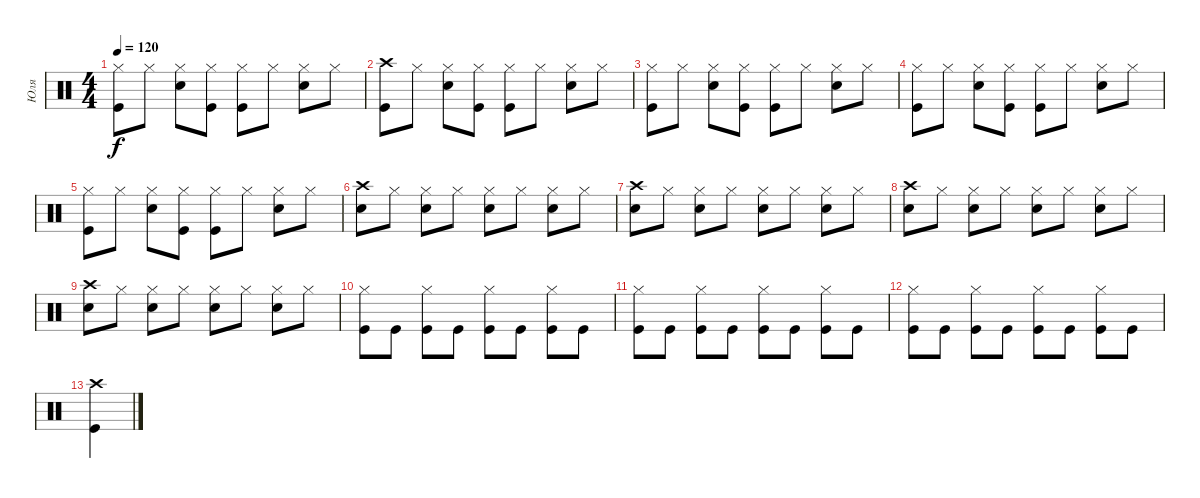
\track ("Юля" "Юля") {instrument percussion}
\staff {score}
\articulation defaults
\ts (4 4)
\tempo 120
\clef neutral
\ks c
("Hi-Hat (closed)" "Kick (hit)").8{dy f} "Hi-Hat (closed)".8 ("Hi-Hat (closed)" "Snare (hit) 2").8 ("Hi-Hat (closed)" "Kick (hit)").8 ("Hi-Hat (closed)" "Kick (hit)").8 "Hi-Hat (closed)".8 ("Hi-Hat (closed)" "Snare (hit) 2").8 "Hi-Hat (closed)".8 |
("Crash high (hit)" "Kick (hit)").8 "Hi-Hat (closed)".8 ("Hi-Hat (closed)" "Snare (hit) 2").8 ("Hi-Hat (closed)" "Kick (hit)").8 ("Hi-Hat (closed)" "Kick (hit)").8 "Hi-Hat (closed)".8 ("Hi-Hat (closed)" "Snare (hit) 2").8 "Hi-Hat (closed)".8 |
("Hi-Hat (closed)" "Kick (hit)").8 "Hi-Hat (closed)".8 ("Hi-Hat (closed)" "Snare (hit) 2").8 ("Hi-Hat (closed)" "Kick (hit)").8 ("Hi-Hat (closed)" "Kick (hit)").8 "Hi-Hat (closed)".8 ("Hi-Hat (closed)" "Snare (hit) 2").8 "Hi-Hat (closed)".8 |
("Hi-Hat (closed)" "Kick (hit)").8 "Hi-Hat (closed)".8 ("Hi-Hat (closed)" "Snare (hit) 2").8 ("Hi-Hat (closed)" "Kick (hit)").8 ("Hi-Hat (closed)" "Kick (hit)").8 "Hi-Hat (closed)".8 ("Hi-Hat (closed)" "Snare (hit) 2").8 "Hi-Hat (closed)".8 |
("Hi-Hat (closed)" "Kick (hit)").8 "Hi-Hat (closed)".8 ("Hi-Hat (closed)" "Snare (hit) 2").8 ("Hi-Hat (closed)" "Kick (hit)").8 ("Hi-Hat (closed)" "Kick (hit)").8 "Hi-Hat (closed)".8 ("Hi-Hat (closed)" "Snare (hit) 2").8 "Hi-Hat (closed)".8 |
("Crash high (hit)" "Snare (hit) 2").8 "Hi-Hat (closed)".8 ("Hi-Hat (closed)" "Snare (hit) 2").8 "Hi-Hat (closed)".8 ("Hi-Hat (closed)" "Snare (hit) 2").8 "Hi-Hat (closed)".8 ("Hi-Hat (closed)" "Snare (hit) 2").8 "Hi-Hat (closed)".8 |
("Crash high (hit)" "Snare (hit) 2").8 "Hi-Hat (closed)".8 ("Hi-Hat (closed)" "Snare (hit) 2").8 "Hi-Hat (closed)".8 ("Hi-Hat (closed)" "Snare (hit) 2").8 "Hi-Hat (closed)".8 ("Hi-Hat (closed)" "Snare (hit) 2").8 "Hi-Hat (closed)".8 |
("Crash high (hit)" "Snare (hit) 2").8 "Hi-Hat (closed)".8 ("Hi-Hat (closed)" "Snare (hit) 2").8 "Hi-Hat (closed)".8 ("Hi-Hat (closed)" "Snare (hit) 2").8 "Hi-Hat (closed)".8 ("Hi-Hat (closed)" "Snare (hit) 2").8 "Hi-Hat (closed)".8 |
("Crash high (hit)" "Snare (hit) 2").8 "Hi-Hat (closed)".8 ("Hi-Hat (closed)" "Snare (hit) 2").8 "Hi-Hat (closed)".8 ("Hi-Hat (closed)" "Snare (hit) 2").8 "Hi-Hat (closed)".8 ("Hi-Hat (closed)" "Snare (hit) 2").8 "Hi-Hat (closed)".8 |
("Hi-Hat (closed)" "Kick (hit)").8 "Kick (hit)".8 ("Hi-Hat (closed)" "Kick (hit)").8 "Kick (hit)".8 ("Hi-Hat (closed)" "Kick (hit)").8 "Kick (hit)".8 ("Hi-Hat (closed)" "Kick (hit)").8 "Kick (hit)".8 |
("Hi-Hat (closed)" "Kick (hit)").8 "Kick (hit)".8 ("Hi-Hat (closed)" "Kick (hit)").8 "Kick (hit)".8 ("Hi-Hat (closed)" "Kick (hit)").8 "Kick (hit)".8 ("Hi-Hat (closed)" "Kick (hit)").8 "Kick (hit)".8 |
("Hi-Hat (closed)" "Kick (hit)").8 "Kick (hit)".8 ("Hi-Hat (closed)" "Kick (hit)").8 "Kick (hit)".8 ("Hi-Hat (closed)" "Kick (hit)").8 "Kick (hit)".8 ("Hi-Hat (closed)" "Kick (hit)").8 "Kick (hit)".8 |
("Crash high (hit)" "Kick (hit)").4
